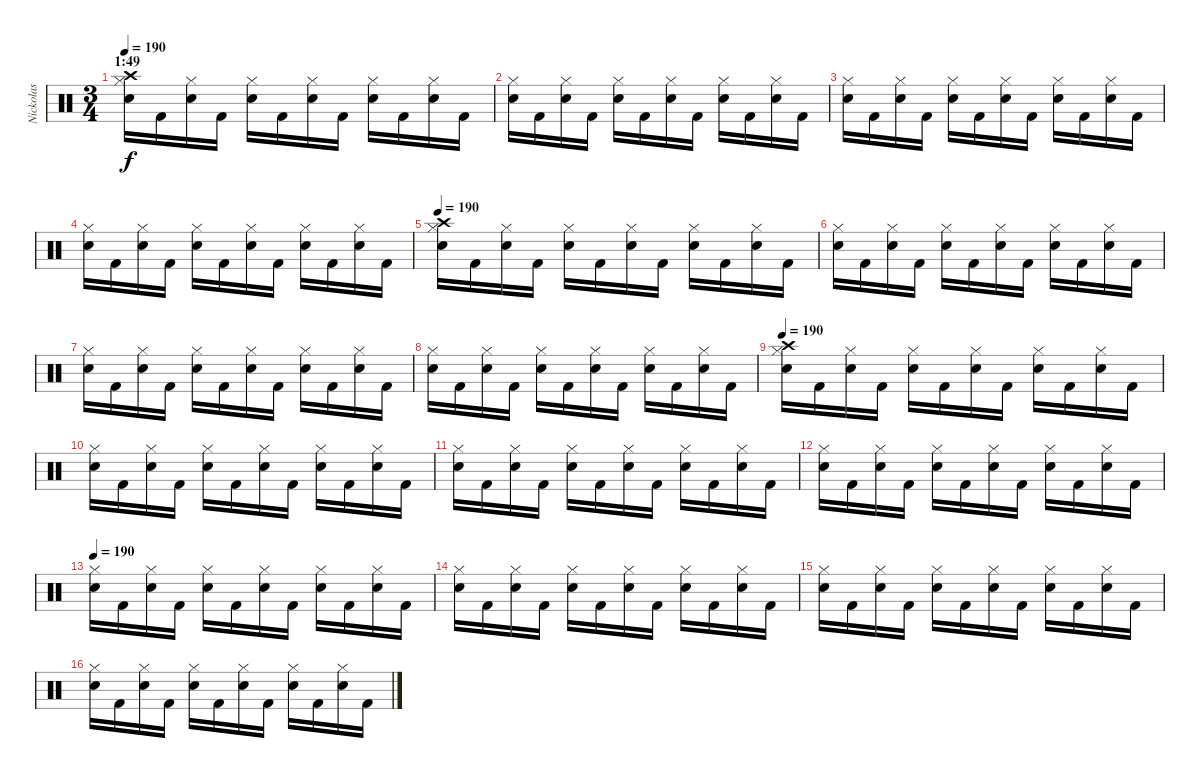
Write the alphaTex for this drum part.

\track ("Nickolas " "Nickolas ") {instrument percussion}
\staff {score}
\articulation defaults
\ts (3 4)
\section ("" "1:49")
\tempo 190
\clef neutral
\ks c
("Snare (hit) 2" "Hi-Hat (closed)" "Crash high (hit)").16{dy f} "Kick (hit) 2".16 ("Snare (hit) 2" "Hi-Hat (closed)").16 "Kick (hit) 2".16 ("Snare (hit) 2" "Hi-Hat (closed)").16 "Kick (hit) 2".16 ("Snare (hit) 2" "Hi-Hat (closed)").16 "Kick (hit) 2".16 ("Snare (hit) 2" "Hi-Hat (closed)").16 "Kick (hit) 2".16 ("Snare (hit) 2" "Hi-Hat (closed)").16 "Kick (hit) 2".16 |
("Snare (hit) 2" "Hi-Hat (closed)").16 "Kick (hit) 2".16 ("Snare (hit) 2" "Hi-Hat (closed)").16 "Kick (hit) 2".16 ("Snare (hit) 2" "Hi-Hat (closed)").16 "Kick (hit) 2".16 ("Snare (hit) 2" "Hi-Hat (closed)").16 "Kick (hit) 2".16 ("Snare (hit) 2" "Hi-Hat (closed)").16 "Kick (hit) 2".16 ("Snare (hit) 2" "Hi-Hat (closed)").16 "Kick (hit) 2".16 |
("Snare (hit) 2" "Hi-Hat (closed)").16 "Kick (hit) 2".16 ("Snare (hit) 2" "Hi-Hat (closed)").16 "Kick (hit) 2".16 ("Snare (hit) 2" "Hi-Hat (closed)").16 "Kick (hit) 2".16 ("Snare (hit) 2" "Hi-Hat (closed)").16 "Kick (hit) 2".16 ("Snare (hit) 2" "Hi-Hat (closed)").16 "Kick (hit) 2".16 ("Snare (hit) 2" "Hi-Hat (closed)").16 "Kick (hit) 2".16 |
("Snare (hit) 2" "Hi-Hat (closed)").16 "Kick (hit) 2".16 ("Snare (hit) 2" "Hi-Hat (closed)").16 "Kick (hit) 2".16 ("Snare (hit) 2" "Hi-Hat (closed)").16 "Kick (hit) 2".16 ("Snare (hit) 2" "Hi-Hat (closed)").16 "Kick (hit) 2".16 ("Snare (hit) 2" "Hi-Hat (closed)").16 "Kick (hit) 2".16 ("Snare (hit) 2" "Hi-Hat (closed)").16 "Kick (hit) 2".16 |
\tempo 190
("Snare (hit) 2" "Hi-Hat (closed)" "Crash high (hit)").16 "Kick (hit) 2".16 ("Snare (hit) 2" "Hi-Hat (closed)").16 "Kick (hit) 2".16 ("Snare (hit) 2" "Hi-Hat (closed)").16 "Kick (hit) 2".16 ("Snare (hit) 2" "Hi-Hat (closed)").16 "Kick (hit) 2".16 ("Snare (hit) 2" "Hi-Hat (closed)").16 "Kick (hit) 2".16 ("Snare (hit) 2" "Hi-Hat (closed)").16 "Kick (hit) 2".16 |
("Snare (hit) 2" "Hi-Hat (closed)").16 "Kick (hit) 2".16 ("Snare (hit) 2" "Hi-Hat (closed)").16 "Kick (hit) 2".16 ("Snare (hit) 2" "Hi-Hat (closed)").16 "Kick (hit) 2".16 ("Snare (hit) 2" "Hi-Hat (closed)").16 "Kick (hit) 2".16 ("Snare (hit) 2" "Hi-Hat (closed)").16 "Kick (hit) 2".16 ("Snare (hit) 2" "Hi-Hat (closed)").16 "Kick (hit) 2".16 |
("Snare (hit) 2" "Hi-Hat (closed)").16 "Kick (hit) 2".16 ("Snare (hit) 2" "Hi-Hat (closed)").16 "Kick (hit) 2".16 ("Snare (hit) 2" "Hi-Hat (closed)").16 "Kick (hit) 2".16 ("Snare (hit) 2" "Hi-Hat (closed)").16 "Kick (hit) 2".16 ("Snare (hit) 2" "Hi-Hat (closed)").16 "Kick (hit) 2".16 ("Snare (hit) 2" "Hi-Hat (closed)").16 "Kick (hit) 2".16 |
("Snare (hit) 2" "Hi-Hat (closed)").16 "Kick (hit) 2".16 ("Snare (hit) 2" "Hi-Hat (closed)").16 "Kick (hit) 2".16 ("Snare (hit) 2" "Hi-Hat (closed)").16 "Kick (hit) 2".16 ("Snare (hit) 2" "Hi-Hat (closed)").16 "Kick (hit) 2".16 ("Snare (hit) 2" "Hi-Hat (closed)").16 "Kick (hit) 2".16 ("Snare (hit) 2" "Hi-Hat (closed)").16 "Kick (hit) 2".16 |
\tempo 190
("Snare (hit) 2" "Hi-Hat (closed)" "Crash high (hit)").16 "Kick (hit) 2".16 ("Snare (hit) 2" "Hi-Hat (closed)").16 "Kick (hit) 2".16 ("Snare (hit) 2" "Hi-Hat (closed)").16 "Kick (hit) 2".16 ("Snare (hit) 2" "Hi-Hat (closed)").16 "Kick (hit) 2".16 ("Snare (hit) 2" "Hi-Hat (closed)").16 "Kick (hit) 2".16 ("Snare (hit) 2" "Hi-Hat (closed)").16 "Kick (hit) 2".16 |
("Snare (hit) 2" "Hi-Hat (closed)").16 "Kick (hit) 2".16 ("Snare (hit) 2" "Hi-Hat (closed)").16 "Kick (hit) 2".16 ("Snare (hit) 2" "Hi-Hat (closed)").16 "Kick (hit) 2".16 ("Snare (hit) 2" "Hi-Hat (closed)").16 "Kick (hit) 2".16 ("Snare (hit) 2" "Hi-Hat (closed)").16 "Kick (hit) 2".16 ("Snare (hit) 2" "Hi-Hat (closed)").16 "Kick (hit) 2".16 |
("Snare (hit) 2" "Hi-Hat (closed)").16 "Kick (hit) 2".16 ("Snare (hit) 2" "Hi-Hat (closed)").16 "Kick (hit) 2".16 ("Snare (hit) 2" "Hi-Hat (closed)").16 "Kick (hit) 2".16 ("Snare (hit) 2" "Hi-Hat (closed)").16 "Kick (hit) 2".16 ("Snare (hit) 2" "Hi-Hat (closed)").16 "Kick (hit) 2".16 ("Snare (hit) 2" "Hi-Hat (closed)").16 "Kick (hit) 2".16 |
("Snare (hit) 2" "Hi-Hat (closed)").16 "Kick (hit) 2".16 ("Snare (hit) 2" "Hi-Hat (closed)").16 "Kick (hit) 2".16 ("Snare (hit) 2" "Hi-Hat (closed)").16 "Kick (hit) 2".16 ("Snare (hit) 2" "Hi-Hat (closed)").16 "Kick (hit) 2".16 ("Snare (hit) 2" "Hi-Hat (closed)").16 "Kick (hit) 2".16 ("Snare (hit) 2" "Hi-Hat (closed)").16 "Kick (hit) 2".16 |
\tempo 190
("Snare (hit) 2" "Hi-Hat (closed)").16 "Kick (hit) 2".16 ("Snare (hit) 2" "Hi-Hat (closed)").16 "Kick (hit) 2".16 ("Snare (hit) 2" "Hi-Hat (closed)").16 "Kick (hit) 2".16 ("Snare (hit) 2" "Hi-Hat (closed)").16 "Kick (hit) 2".16 ("Snare (hit) 2" "Hi-Hat (closed)").16 "Kick (hit) 2".16 ("Snare (hit) 2" "Hi-Hat (closed)").16 "Kick (hit) 2".16 |
("Snare (hit) 2" "Hi-Hat (closed)").16 "Kick (hit) 2".16 ("Snare (hit) 2" "Hi-Hat (closed)").16 "Kick (hit) 2".16 ("Snare (hit) 2" "Hi-Hat (closed)").16 "Kick (hit) 2".16 ("Snare (hit) 2" "Hi-Hat (closed)").16 "Kick (hit) 2".16 ("Snare (hit) 2" "Hi-Hat (closed)").16 "Kick (hit) 2".16 ("Snare (hit) 2" "Hi-Hat (closed)").16 "Kick (hit) 2".16 |
("Snare (hit) 2" "Hi-Hat (closed)").16 "Kick (hit) 2".16 ("Snare (hit) 2" "Hi-Hat (closed)").16 "Kick (hit) 2".16 ("Snare (hit) 2" "Hi-Hat (closed)").16 "Kick (hit) 2".16 ("Snare (hit) 2" "Hi-Hat (closed)").16 "Kick (hit) 2".16 ("Snare (hit) 2" "Hi-Hat (closed)").16 "Kick (hit) 2".16 ("Snare (hit) 2" "Hi-Hat (closed)").16 "Kick (hit) 2".16 |
("Snare (hit) 2" "Hi-Hat (closed)").16 "Kick (hit) 2".16 ("Snare (hit) 2" "Hi-Hat (closed)").16 "Kick (hit) 2".16 ("Snare (hit) 2" "Hi-Hat (closed)").16 "Kick (hit) 2".16 ("Snare (hit) 2" "Hi-Hat (closed)").16 "Kick (hit) 2".16 ("Snare (hit) 2" "Hi-Hat (closed)").16 "Kick (hit) 2".16 ("Snare (hit) 2" "Hi-Hat (closed)").16 "Kick (hit) 2".16
